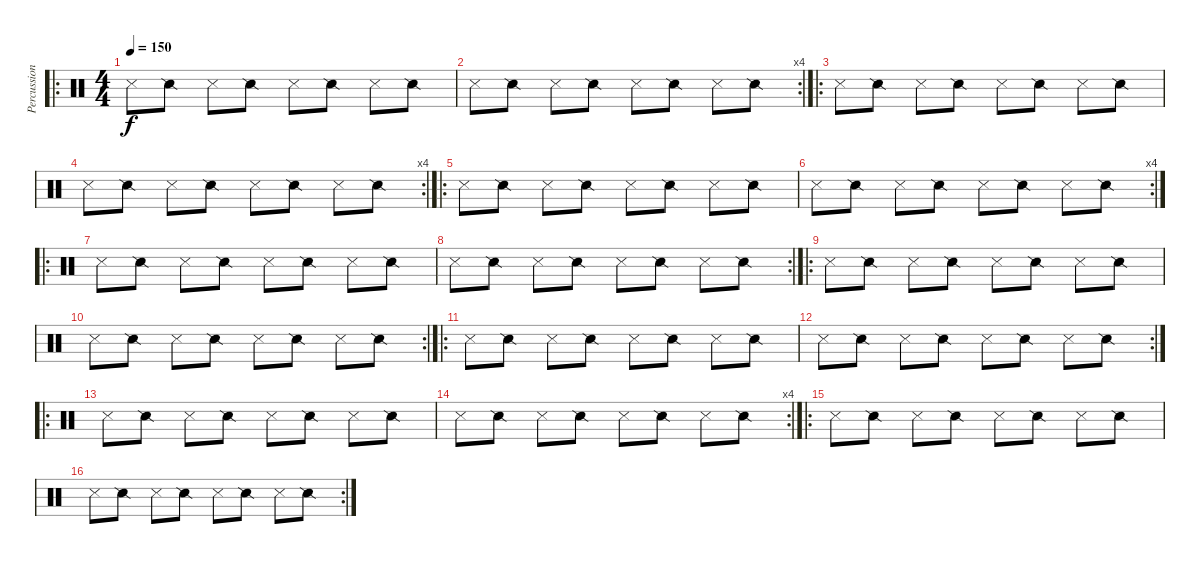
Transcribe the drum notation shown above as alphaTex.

\track ("Percussions" "Percussion") {instrument percussion}
\staff {score}
\articulation defaults
\ro
\ts (4 4)
\tempo 150
\clef neutral
\ks c "Snare (side stick) 3".8{dy f} "Snare (side stick) 2".8 "Snare (side stick) 3".8 "Snare (side stick) 2".8 "Snare (side stick) 3".8 "Snare (side stick) 2".8 "Snare (side stick) 3".8 "Snare (side stick) 2".8
|
\rc 4 "Snare (side stick) 3".8 "Snare (side stick) 2".8 "Snare (side stick) 3".8 "Snare (side stick) 2".8 "Snare (side stick) 3".8 "Snare (side stick) 2".8 "Snare (side stick) 3".8 "Snare (side stick) 2".8
|
\ro "Snare (side stick) 3".8 "Snare (side stick) 2".8 "Snare (side stick) 3".8 "Snare (side stick) 2".8 "Snare (side stick) 3".8 "Snare (side stick) 2".8 "Snare (side stick) 3".8 "Snare (side stick) 2".8
|
\rc 4 "Snare (side stick) 3".8 "Snare (side stick) 2".8 "Snare (side stick) 3".8 "Snare (side stick) 2".8 "Snare (side stick) 3".8 "Snare (side stick) 2".8 "Snare (side stick) 3".8 "Snare (side stick) 2".8
|
\ro "Snare (side stick) 3".8 "Snare (side stick) 2".8 "Snare (side stick) 3".8 "Snare (side stick) 2".8 "Snare (side stick) 3".8 "Snare (side stick) 2".8 "Snare (side stick) 3".8 "Snare (side stick) 2".8
|
\rc 4 "Snare (side stick) 3".8 "Snare (side stick) 2".8 "Snare (side stick) 3".8 "Snare (side stick) 2".8 "Snare (side stick) 3".8 "Snare (side stick) 2".8 "Snare (side stick) 3".8 "Snare (side stick) 2".8
|
\ro "Snare (side stick) 3".8 "Snare (side stick) 2".8 "Snare (side stick) 3".8 "Snare (side stick) 2".8 "Snare (side stick) 3".8 "Snare (side stick) 2".8 "Snare (side stick) 3".8 "Snare (side stick) 2".8
|
\rc 2 "Snare (side stick) 3".8 "Snare (side stick) 2".8 "Snare (side stick) 3".8 "Snare (side stick) 2".8 "Snare (side stick) 3".8 "Snare (side stick) 2".8 "Snare (side stick) 3".8 "Snare (side stick) 2".8
|
\ro "Snare (side stick) 3".8 "Snare (side stick) 2".8 "Snare (side stick) 3".8 "Snare (side stick) 2".8 "Snare (side stick) 3".8 "Snare (side stick) 2".8 "Snare (side stick) 3".8 "Snare (side stick) 2".8
|
\rc 2 "Snare (side stick) 3".8 "Snare (side stick) 2".8 "Snare (side stick) 3".8 "Snare (side stick) 2".8 "Snare (side stick) 3".8 "Snare (side stick) 2".8 "Snare (side stick) 3".8 "Snare (side stick) 2".8
|
\ro "Snare (side stick) 3".8 "Snare (side stick) 2".8 "Snare (side stick) 3".8 "Snare (side stick) 2".8 "Snare (side stick) 3".8 "Snare (side stick) 2".8 "Snare (side stick) 3".8 "Snare (side stick) 2".8
|
\rc 2 "Snare (side stick) 3".8 "Snare (side stick) 2".8 "Snare (side stick) 3".8 "Snare (side stick) 2".8 "Snare (side stick) 3".8 "Snare (side stick) 2".8 "Snare (side stick) 3".8 "Snare (side stick) 2".8
|
\ro "Snare (side stick) 3".8 "Snare (side stick) 2".8 "Snare (side stick) 3".8 "Snare (side stick) 2".8 "Snare (side stick) 3".8 "Snare (side stick) 2".8 "Snare (side stick) 3".8 "Snare (side stick) 2".8
|
\rc 4 "Snare (side stick) 3".8 "Snare (side stick) 2".8 "Snare (side stick) 3".8 "Snare (side stick) 2".8 "Snare (side stick) 3".8 "Snare (side stick) 2".8 "Snare (side stick) 3".8 "Snare (side stick) 2".8
|
\ro "Snare (side stick) 3".8 "Snare (side stick) 2".8 "Snare (side stick) 3".8 "Snare (side stick) 2".8 "Snare (side stick) 3".8 "Snare (side stick) 2".8 "Snare (side stick) 3".8 "Snare (side stick) 2".8
|
\rc 2 "Snare (side stick) 3".8 "Snare (side stick) 2".8 "Snare (side stick) 3".8 "Snare (side stick) 2".8 "Snare (side stick) 3".8 "Snare (side stick) 2".8 "Snare (side stick) 3".8 "Snare (side stick) 2".8
